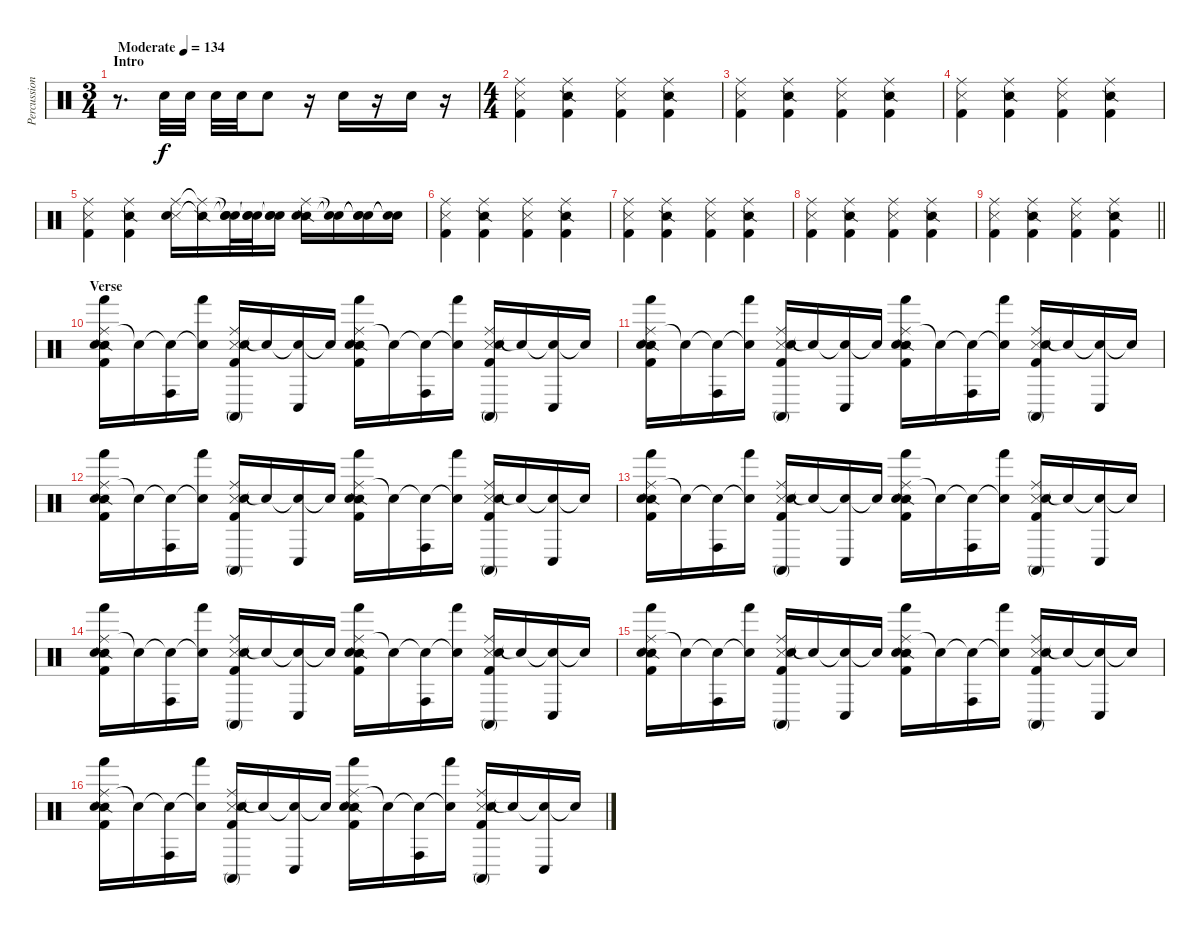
\track ("Percussion" "Percussion") {instrument percussion}
\staff {score}
\articulation defaults
\ts (3 4)
\section ("" "Intro")
\tempo (134 "Moderate")
\clef neutral
\ks c
r.8{d dy f} "Snare (hit) 2".32 "Snare (hit) 2".32 "Snare (hit) 2".32 "Snare (hit) 2".32 "Snare (hit) 2".8 r.16 "Snare (hit) 2".16 r.16 "Snare (hit) 2".16 r.16 |
\ts (4 4)
("Ride (middle)" "Metronome (hit)" "Kick (hit) 2").4 ("Ride (middle)" "Snare (side stick) 2" "Kick (hit) 2").4 ("Ride (middle)" "Metronome (hit)" "Kick (hit) 2").4 ("Ride (middle)" "Snare (side stick) 2" "Kick (hit) 2").4 |
("Ride (middle)" "Metronome (hit)" "Kick (hit) 2").4 ("Ride (middle)" "Snare (side stick) 2" "Kick (hit) 2").4 ("Ride (middle)" "Metronome (hit)" "Kick (hit) 2").4 ("Ride (middle)" "Snare (side stick) 2" "Kick (hit) 2").4 |
("Ride (middle)" "Metronome (hit)" "Kick (hit) 2").4 ("Ride (middle)" "Snare (side stick) 2" "Kick (hit) 2").4 ("Ride (middle)" "Metronome (hit)" "Kick (hit) 2").4 ("Ride (middle)" "Snare (side stick) 2" "Kick (hit) 2").4 |
("Ride (middle)" "Metronome (hit)" "Kick (hit) 2").4 ("Ride (middle)" "Snare (side stick) 2" "Kick (hit) 2").4 ("Ride (middle)" "Metronome (hit)" "Snare (hit) 2").16 ("Ride (middle)"{t} "Snare (side stick) 2"{t}).16 ("Snare (hit)"{t} "Snare (hit)"{t} "Snare (hit) 2").32 ("Snare (hit)"{t} "Snare (hit)"{t} "Snare (hit) 2").32 ("Snare (hit)"{t} "Snare (hit)"{t} "Snare (hit) 2").16 ("Ride (middle)" "Snare (side stick) 2" "Snare (hit) 2").16 ("Snare (hit)"{t} "Snare (hit)"{t}).16 ("Snare (hit)"{t} "Snare (hit)"{t} "Snare (hit) 2").16 ("Snare (hit)"{t} "Snare (hit)"{t}).16 |
("Ride (middle)" "Metronome (hit)" "Kick (hit) 2").4 ("Ride (middle)" "Snare (side stick) 2" "Kick (hit) 2").4 ("Ride (middle)" "Metronome (hit)" "Kick (hit) 2").4 ("Ride (middle)" "Snare (side stick) 2" "Kick (hit) 2").4 |
("Ride (middle)" "Metronome (hit)" "Kick (hit) 2").4 ("Ride (middle)" "Snare (side stick) 2" "Kick (hit) 2").4 ("Ride (middle)" "Metronome (hit)" "Kick (hit) 2").4 ("Ride (middle)" "Snare (side stick) 2" "Kick (hit) 2").4 |
("Ride (middle)" "Metronome (hit)" "Kick (hit) 2").4 ("Ride (middle)" "Snare (side stick) 2" "Kick (hit) 2").4 ("Ride (middle)" "Metronome (hit)" "Kick (hit) 2").4 ("Ride (middle)" "Snare (side stick) 2" "Kick (hit) 2").4 |
\barLineRight lightlight
("Ride (middle)" "Metronome (hit)" "Kick (hit) 2").4 ("Ride (middle)" "Snare (side stick) 2" "Kick (hit) 2").4 ("Ride (middle)" "Metronome (hit)" "Kick (hit) 2").4 ("Ride (middle)" "Snare (side stick) 2" "Kick (hit) 2").4 |
\section ("" "Verse")
("Ride (middle)" "Hand (hit)" "Snare (side stick) 2" "Electric Snare (hit)" "Kick (hit) 2").16 "Snare (hit)"{t}.16 ("Snare (hit)"{t} "Conga high (hit)").16 ("Snare (hit)"{t} "Hand (hit)").16 ("Ride (middle)" "Conga high (mute)" "Metronome (hit)" "Electric Snare (hit)" "Kick (hit) 2").16 "Snare (hit)"{t}.16 ("Snare (hit)"{t} "Conga low (hit)").16 "Snare (hit)"{t}.16 ("Ride (middle)" "Hand (hit)" "Snare (side stick) 2" "Electric Snare (hit)" "Kick (hit) 2").16 "Snare (hit)"{t}.16 ("Snare (hit)"{t} "Conga high (hit)").16 ("Snare (hit)"{t} "Hand (hit)").16 ("Ride (middle)" "Conga high (mute)" "Metronome (hit)" "Electric Snare (hit)" "Kick (hit) 2").16 "Snare (hit)"{t}.16 ("Snare (hit)"{t} "Conga low (hit)").16 "Snare (hit)"{t}.16 |
("Ride (middle)" "Hand (hit)" "Snare (side stick) 2" "Electric Snare (hit)" "Kick (hit) 2").16 "Snare (hit)"{t}.16 ("Snare (hit)"{t} "Conga high (hit)").16 ("Snare (hit)"{t} "Hand (hit)").16 ("Ride (middle)" "Conga high (mute)" "Metronome (hit)" "Electric Snare (hit)" "Kick (hit) 2").16 "Snare (hit)"{t}.16 ("Snare (hit)"{t} "Conga low (hit)").16 "Snare (hit)"{t}.16 ("Ride (middle)" "Hand (hit)" "Snare (side stick) 2" "Electric Snare (hit)" "Kick (hit) 2").16 "Snare (hit)"{t}.16 ("Snare (hit)"{t} "Conga high (hit)").16 ("Snare (hit)"{t} "Hand (hit)").16 ("Ride (middle)" "Conga high (mute)" "Metronome (hit)" "Electric Snare (hit)" "Kick (hit) 2").16 "Snare (hit)"{t}.16 ("Snare (hit)"{t} "Conga low (hit)").16 "Snare (hit)"{t}.16 |
("Ride (middle)" "Hand (hit)" "Snare (side stick) 2" "Electric Snare (hit)" "Kick (hit) 2").16 "Snare (hit)"{t}.16 ("Snare (hit)"{t} "Conga high (hit)").16 ("Snare (hit)"{t} "Hand (hit)").16 ("Ride (middle)" "Conga high (mute)" "Metronome (hit)" "Electric Snare (hit)" "Kick (hit) 2").16 "Snare (hit)"{t}.16 ("Snare (hit)"{t} "Conga low (hit)").16 "Snare (hit)"{t}.16 ("Ride (middle)" "Hand (hit)" "Snare (side stick) 2" "Electric Snare (hit)" "Kick (hit) 2").16 "Snare (hit)"{t}.16 ("Snare (hit)"{t} "Conga high (hit)").16 ("Snare (hit)"{t} "Hand (hit)").16 ("Ride (middle)" "Conga high (mute)" "Metronome (hit)" "Electric Snare (hit)" "Kick (hit) 2").16 "Snare (hit)"{t}.16 ("Snare (hit)"{t} "Conga low (hit)").16 "Snare (hit)"{t}.16 |
("Ride (middle)" "Hand (hit)" "Snare (side stick) 2" "Electric Snare (hit)" "Kick (hit) 2").16 "Snare (hit)"{t}.16 ("Snare (hit)"{t} "Conga high (hit)").16 ("Snare (hit)"{t} "Hand (hit)").16 ("Ride (middle)" "Conga high (mute)" "Metronome (hit)" "Electric Snare (hit)" "Kick (hit) 2").16 "Snare (hit)"{t}.16 ("Snare (hit)"{t} "Conga low (hit)").16 "Snare (hit)"{t}.16 ("Ride (middle)" "Hand (hit)" "Snare (side stick) 2" "Electric Snare (hit)" "Kick (hit) 2").16 "Snare (hit)"{t}.16 ("Snare (hit)"{t} "Conga high (hit)").16 ("Snare (hit)"{t} "Hand (hit)").16 ("Ride (middle)" "Conga high (mute)" "Metronome (hit)" "Electric Snare (hit)" "Kick (hit) 2").16 "Snare (hit)"{t}.16 ("Snare (hit)"{t} "Conga low (hit)").16 "Snare (hit)"{t}.16 |
("Ride (middle)" "Hand (hit)" "Snare (side stick) 2" "Electric Snare (hit)" "Kick (hit) 2").16 "Snare (hit)"{t}.16 ("Snare (hit)"{t} "Conga high (hit)").16 ("Snare (hit)"{t} "Hand (hit)").16 ("Ride (middle)" "Conga high (mute)" "Metronome (hit)" "Electric Snare (hit)" "Kick (hit) 2").16 "Snare (hit)"{t}.16 ("Snare (hit)"{t} "Conga low (hit)").16 "Snare (hit)"{t}.16 ("Ride (middle)" "Hand (hit)" "Snare (side stick) 2" "Electric Snare (hit)" "Kick (hit) 2").16 "Snare (hit)"{t}.16 ("Snare (hit)"{t} "Conga high (hit)").16 ("Snare (hit)"{t} "Hand (hit)").16 ("Ride (middle)" "Conga high (mute)" "Metronome (hit)" "Electric Snare (hit)" "Kick (hit) 2").16 "Snare (hit)"{t}.16 ("Snare (hit)"{t} "Conga low (hit)").16 "Snare (hit)"{t}.16 |
("Ride (middle)" "Hand (hit)" "Snare (side stick) 2" "Electric Snare (hit)" "Kick (hit) 2").16 "Snare (hit)"{t}.16 ("Snare (hit)"{t} "Conga high (hit)").16 ("Snare (hit)"{t} "Hand (hit)").16 ("Ride (middle)" "Conga high (mute)" "Metronome (hit)" "Electric Snare (hit)" "Kick (hit) 2").16 "Snare (hit)"{t}.16 ("Snare (hit)"{t} "Conga low (hit)").16 "Snare (hit)"{t}.16 ("Ride (middle)" "Hand (hit)" "Snare (side stick) 2" "Electric Snare (hit)" "Kick (hit) 2").16 "Snare (hit)"{t}.16 ("Snare (hit)"{t} "Conga high (hit)").16 ("Snare (hit)"{t} "Hand (hit)").16 ("Ride (middle)" "Conga high (mute)" "Metronome (hit)" "Electric Snare (hit)" "Kick (hit) 2").16 "Snare (hit)"{t}.16 ("Snare (hit)"{t} "Conga low (hit)").16 "Snare (hit)"{t}.16 |
("Ride (middle)" "Hand (hit)" "Snare (side stick) 2" "Electric Snare (hit)" "Kick (hit) 2").16 "Snare (hit)"{t}.16 ("Snare (hit)"{t} "Conga high (hit)").16 ("Snare (hit)"{t} "Hand (hit)").16 ("Ride (middle)" "Conga high (mute)" "Metronome (hit)" "Electric Snare (hit)" "Kick (hit) 2").16 "Snare (hit)"{t}.16 ("Snare (hit)"{t} "Conga low (hit)").16 "Snare (hit)"{t}.16 ("Ride (middle)" "Hand (hit)" "Snare (side stick) 2" "Electric Snare (hit)" "Kick (hit) 2").16 "Snare (hit)"{t}.16 ("Snare (hit)"{t} "Conga high (hit)").16 ("Snare (hit)"{t} "Hand (hit)").16 ("Ride (middle)" "Conga high (mute)" "Metronome (hit)" "Electric Snare (hit)" "Kick (hit) 2").16 "Snare (hit)"{t}.16 ("Snare (hit)"{t} "Conga low (hit)").16 "Snare (hit)"{t}.16
